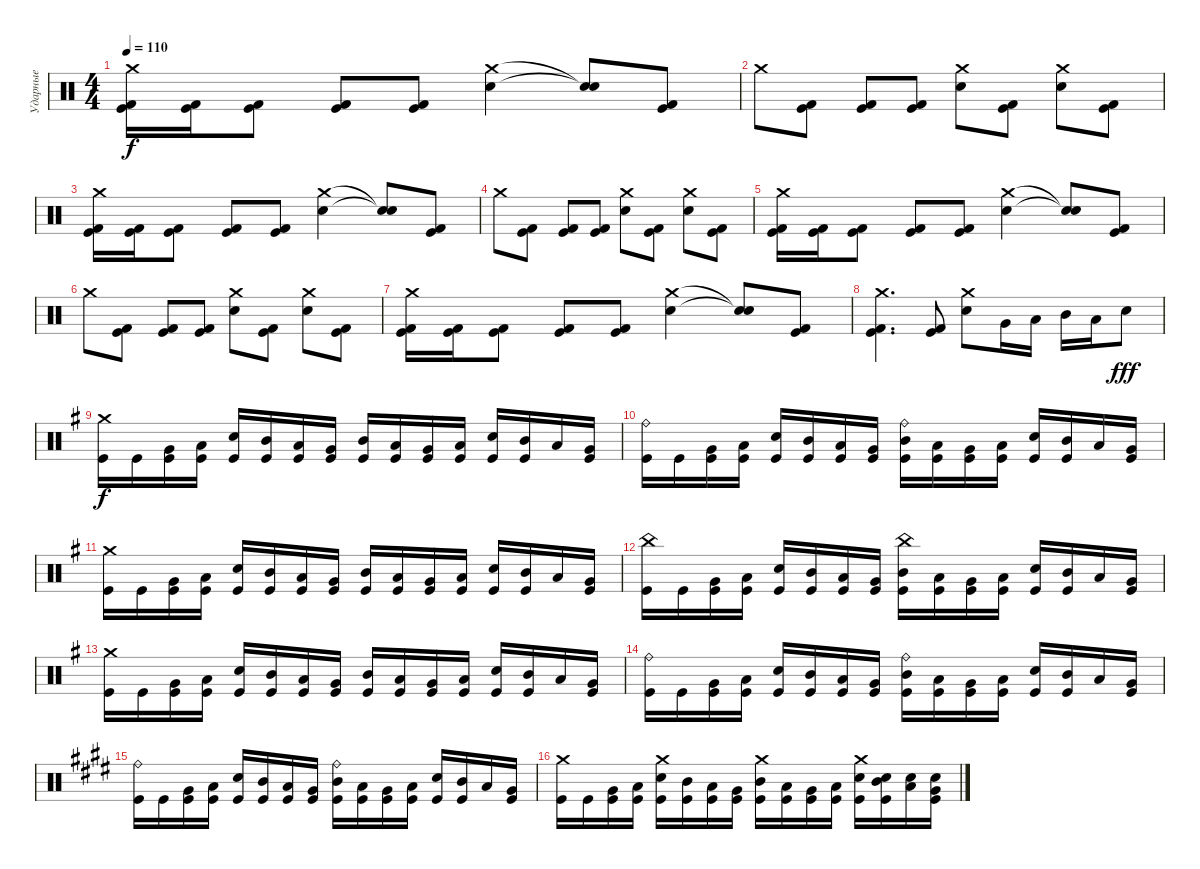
\track ("Ударные" "Ударные") {instrument percussion}
\staff {score}
\articulation defaults
\ts (4 4)
\tempo 110
\clef neutral
\ks c
("Crash medium (hit)" "Kick (hit)" "Kick (hit) 2").16{dy f} ("Kick (hit)" "Kick (hit) 2").16 ("Kick (hit)" "Kick (hit) 2").8 ("Kick (hit)" "Kick (hit) 2").8 ("Kick (hit)" "Kick (hit) 2").8 ("Crash medium (hit)" "Electric Snare (hit)").4 ("Snare (hit)"{t} "Snare (hit)"{t}).8 ("Kick (hit)" "Kick (hit) 2").8 |
"Crash medium (hit)".8 ("Kick (hit)" "Kick (hit) 2").8 ("Kick (hit)" "Kick (hit) 2").8 ("Kick (hit)" "Kick (hit) 2").8 ("Crash medium (hit)" "Electric Snare (hit)").8 ("Kick (hit)" "Kick (hit) 2").8 ("Crash medium (hit)" "Electric Snare (hit)").8 ("Kick (hit)" "Kick (hit) 2").8 |
("Crash medium (hit)" "Kick (hit)" "Kick (hit) 2").16 ("Kick (hit)" "Kick (hit) 2").16 ("Kick (hit)" "Kick (hit) 2").8 ("Kick (hit)" "Kick (hit) 2").8 ("Kick (hit)" "Kick (hit) 2").8 ("Crash medium (hit)" "Electric Snare (hit)").4 ("Snare (hit)"{t} "Snare (hit)"{t}).8 ("Kick (hit)" "Kick (hit) 2").8 |
"Crash medium (hit)".8 ("Kick (hit)" "Kick (hit) 2").8 ("Kick (hit)" "Kick (hit) 2").8 ("Kick (hit)" "Kick (hit) 2").8 ("Crash medium (hit)" "Electric Snare (hit)").8 ("Kick (hit)" "Kick (hit) 2").8 ("Crash medium (hit)" "Electric Snare (hit)").8 ("Kick (hit)" "Kick (hit) 2").8 |
("Crash medium (hit)" "Kick (hit)" "Kick (hit) 2").16 ("Kick (hit)" "Kick (hit) 2").16 ("Kick (hit)" "Kick (hit) 2").8 ("Kick (hit)" "Kick (hit) 2").8 ("Kick (hit)" "Kick (hit) 2").8 ("Crash medium (hit)" "Electric Snare (hit)").4 ("Snare (hit)"{t} "Snare (hit)"{t}).8 ("Kick (hit)" "Kick (hit) 2").8 |
"Crash medium (hit)".8 ("Kick (hit)" "Kick (hit) 2").8 ("Kick (hit)" "Kick (hit) 2").8 ("Kick (hit)" "Kick (hit) 2").8 ("Crash medium (hit)" "Electric Snare (hit)").8 ("Kick (hit)" "Kick (hit) 2").8 ("Crash medium (hit)" "Electric Snare (hit)").8 ("Kick (hit)" "Kick (hit) 2").8 |
("Crash medium (hit)" "Kick (hit)" "Kick (hit) 2").16 ("Kick (hit)" "Kick (hit) 2").16 ("Kick (hit)" "Kick (hit) 2").8 ("Kick (hit)" "Kick (hit) 2").8 ("Kick (hit)" "Kick (hit) 2").8 ("Crash medium (hit)" "Electric Snare (hit)").4 ("Snare (hit)"{t} "Snare (hit)"{t}).8 ("Kick (hit)" "Kick (hit) 2").8 |
("Crash medium (hit)" "Kick (hit)" "Kick (hit) 2").4{d} ("Kick (hit)" "Kick (hit) 2").8 ("Crash medium (hit)" "Electric Snare (hit)").8 "Very Low Tom (hit)".16 "Low Tom (hit)".16 "Mid Tom (hit)".16 "Low Tom (hit)".16 "Electric Snare (hit)".8{dy fff} |
\ks g
("Crash medium (hit)" "Kick (hit)").16{dy f} "Kick (hit)".16 ("Very Low Tom (hit)" "Kick (hit)").16 ("Low Floor Tom (hit)" "Kick (hit)").16 ("Electric Snare (hit)" "Kick (hit)").16 ("Mid Tom (hit)" "Kick (hit)").16 ("Low Tom (hit)" "Kick (hit)").16 ("Very Low Tom (hit)" "Kick (hit)").16 ("Mid Tom (hit)" "Kick (hit)").16 ("Low Tom (hit)" "Kick (hit)").16 ("Very Low Tom (hit)" "Kick (hit)").16 ("Low Floor Tom (hit)" "Kick (hit)").16 ("Electric Snare (hit)" "Kick (hit)").16 ("Mid Tom (hit)" "Kick (hit)").16 "Low Tom (hit)".16 ("Very Low Tom (hit)" "Kick (hit)").16 |
("Ride (bell)" "Kick (hit)").16 "Kick (hit)".16 ("Very Low Tom (hit)" "Kick (hit)").16 ("Low Floor Tom (hit)" "Kick (hit)").16 ("Electric Snare (hit)" "Kick (hit)").16 ("Mid Tom (hit)" "Kick (hit)").16 ("Low Tom (hit)" "Kick (hit)").16 ("Very Low Tom (hit)" "Kick (hit)").16 ("Ride (bell)" "Mid Tom (hit)" "Kick (hit)").16 ("Low Tom (hit)" "Kick (hit)").16 ("Very Low Tom (hit)" "Kick (hit)").16 ("Low Floor Tom (hit)" "Kick (hit)").16 ("Electric Snare (hit)" "Kick (hit)").16 ("Mid Tom (hit)" "Kick (hit)").16 "Low Tom (hit)".16 ("Very Low Tom (hit)" "Kick (hit)").16 |
("Crash medium (hit)" "Kick (hit)").16 "Kick (hit)".16 ("Very Low Tom (hit)" "Kick (hit)").16 ("Low Floor Tom (hit)" "Kick (hit)").16 ("Electric Snare (hit)" "Kick (hit)").16 ("Mid Tom (hit)" "Kick (hit)").16 ("Low Tom (hit)" "Kick (hit)").16 ("Very Low Tom (hit)" "Kick (hit)").16 ("Mid Tom (hit)" "Kick (hit)").16 ("Low Tom (hit)" "Kick (hit)").16 ("Very Low Tom (hit)" "Kick (hit)").16 ("Low Floor Tom (hit)" "Kick (hit)").16 ("Electric Snare (hit)" "Kick (hit)").16 ("Mid Tom (hit)" "Kick (hit)").16 "Low Tom (hit)".16 ("Very Low Tom (hit)" "Kick (hit)").16 |
("China (hit)" "Kick (hit)").16 "Kick (hit)".16 ("Very Low Tom (hit)" "Kick (hit)").16 ("Low Floor Tom (hit)" "Kick (hit)").16 ("Electric Snare (hit)" "Kick (hit)").16 ("Mid Tom (hit)" "Kick (hit)").16 ("Low Tom (hit)" "Kick (hit)").16 ("Very Low Tom (hit)" "Kick (hit)").16 ("China (hit)" "Mid Tom (hit)" "Kick (hit)").16 ("Low Tom (hit)" "Kick (hit)").16 ("Very Low Tom (hit)" "Kick (hit)").16 ("Low Floor Tom (hit)" "Kick (hit)").16 ("Electric Snare (hit)" "Kick (hit)").16 ("Mid Tom (hit)" "Kick (hit)").16 "Low Tom (hit)".16 ("Very Low Tom (hit)" "Kick (hit)").16 |
("Crash medium (hit)" "Kick (hit)").16 "Kick (hit)".16 ("Very Low Tom (hit)" "Kick (hit)").16 ("Low Floor Tom (hit)" "Kick (hit)").16 ("Electric Snare (hit)" "Kick (hit)").16 ("Mid Tom (hit)" "Kick (hit)").16 ("Low Tom (hit)" "Kick (hit)").16 ("Very Low Tom (hit)" "Kick (hit)").16 ("Mid Tom (hit)" "Kick (hit)").16 ("Low Tom (hit)" "Kick (hit)").16 ("Very Low Tom (hit)" "Kick (hit)").16 ("Low Floor Tom (hit)" "Kick (hit)").16 ("Electric Snare (hit)" "Kick (hit)").16 ("Mid Tom (hit)" "Kick (hit)").16 "Low Tom (hit)".16 ("Very Low Tom (hit)" "Kick (hit)").16 |
("Ride (bell)" "Kick (hit)").16 "Kick (hit)".16 ("Very Low Tom (hit)" "Kick (hit)").16 ("Low Floor Tom (hit)" "Kick (hit)").16 ("Electric Snare (hit)" "Kick (hit)").16 ("Mid Tom (hit)" "Kick (hit)").16 ("Low Tom (hit)" "Kick (hit)").16 ("Very Low Tom (hit)" "Kick (hit)").16 ("Ride (bell)" "Mid Tom (hit)" "Kick (hit)").16 ("Low Tom (hit)" "Kick (hit)").16 ("Very Low Tom (hit)" "Kick (hit)").16 ("Low Floor Tom (hit)" "Kick (hit)").16 ("Electric Snare (hit)" "Kick (hit)").16 ("Mid Tom (hit)" "Kick (hit)").16 "Low Tom (hit)".16 ("Very Low Tom (hit)" "Kick (hit)").16 |
\ks e
("Ride (bell)" "Kick (hit)").16 "Kick (hit)".16 ("Very Low Tom (hit)" "Kick (hit)").16 ("Low Floor Tom (hit)" "Kick (hit)").16 ("Electric Snare (hit)" "Kick (hit)").16 ("Mid Tom (hit)" "Kick (hit)").16 ("Low Tom (hit)" "Kick (hit)").16 ("Very Low Tom (hit)" "Kick (hit)").16 ("Ride (bell)" "Mid Tom (hit)" "Kick (hit)").16 ("Low Tom (hit)" "Kick (hit)").16 ("Very Low Tom (hit)" "Kick (hit)").16 ("Low Floor Tom (hit)" "Kick (hit)").16 ("Electric Snare (hit)" "Kick (hit)").16 ("Mid Tom (hit)" "Kick (hit)").16 "Low Tom (hit)".16 ("Very Low Tom (hit)" "Kick (hit)").16 |
("Crash medium (hit)" "Kick (hit)").16 "Kick (hit)".16 ("Very Low Tom (hit)" "Kick (hit)").16 ("Low Floor Tom (hit)" "Kick (hit)").16 ("Crash medium (hit)" "Electric Snare (hit)" "Kick (hit)").16 ("Mid Tom (hit)" "Kick (hit)").16 ("Low Tom (hit)" "Kick (hit)").16 ("Very Low Tom (hit)" "Kick (hit)").16 ("Crash medium (hit)" "Mid Tom (hit)" "Kick (hit)").16 ("Low Tom (hit)" "Kick (hit)").16 ("Very Low Tom (hit)" "Kick (hit)").16 ("Low Floor Tom (hit)" "Kick (hit)").16 ("Crash medium (hit)" "Electric Snare (hit)" "Kick (hit)").16 ("Electric Snare (hit)" "Mid Tom (hit)" "Kick (hit)").16 ("Electric Snare (hit)" "Low Tom (hit)").16 ("Electric Snare (hit)" "Very Low Tom (hit)" "Kick (hit)").16
